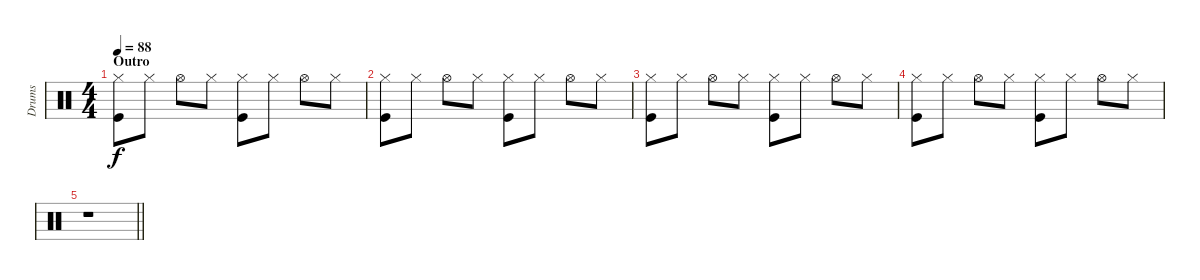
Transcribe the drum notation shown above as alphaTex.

\track ("Drums" "Drums") {instrument percussion}
\staff {score}
\articulation defaults
\ts (4 4)
\section ("" "Outro")
\tempo 88
\clef neutral
\ks c
("Hi-Hat (closed)" "Kick (hit)").8{dy f} "Hi-Hat (closed)".8 "Hi-Hat (open)".8 "Hi-Hat (closed)".8 ("Hi-Hat (closed)" "Kick (hit)").8 "Hi-Hat (closed)".8 "Hi-Hat (open)".8 "Hi-Hat (closed)".8 |
("Hi-Hat (closed)" "Kick (hit)").8 "Hi-Hat (closed)".8 "Hi-Hat (open)".8 "Hi-Hat (closed)".8 ("Hi-Hat (closed)" "Kick (hit)").8 "Hi-Hat (closed)".8 "Hi-Hat (open)".8 "Hi-Hat (closed)".8 |
("Hi-Hat (closed)" "Kick (hit)").8 "Hi-Hat (closed)".8 "Hi-Hat (open)".8 "Hi-Hat (closed)".8 ("Hi-Hat (closed)" "Kick (hit)").8 "Hi-Hat (closed)".8 "Hi-Hat (open)".8 "Hi-Hat (closed)".8 |
("Hi-Hat (closed)" "Kick (hit)").8 "Hi-Hat (closed)".8 "Hi-Hat (open)".8 "Hi-Hat (closed)".8 ("Hi-Hat (closed)" "Kick (hit)").8 "Hi-Hat (closed)".8 "Hi-Hat (open)".8 "Hi-Hat (closed)".8 |
\barLineRight lightlight
r.1
